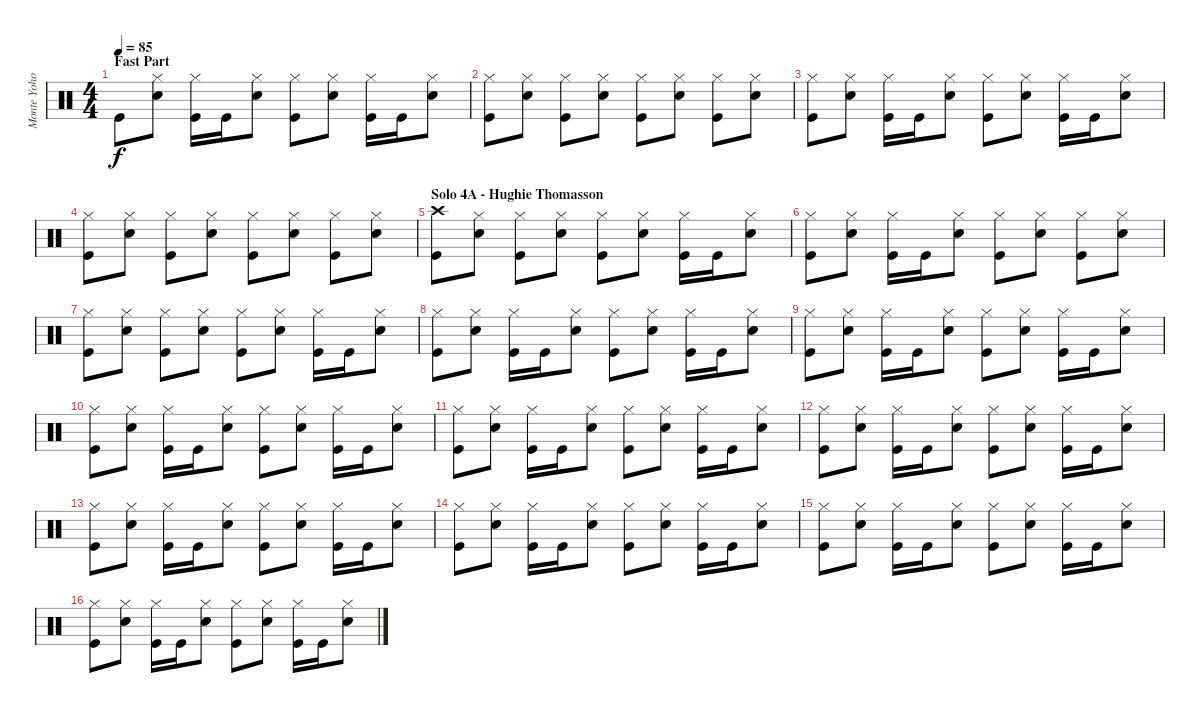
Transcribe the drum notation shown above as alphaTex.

\track ("Monte Yoho - Drums" "Monte Yoho") {instrument percussion}
\staff {score}
\articulation defaults
\ts (4 4)
\section ("" "Fast Part")
\tempo 85
\clef neutral
\ks c "Kick (hit)".8{dy f}
("Hi-Hat (closed)" "Snare (hit) 2").8 ("Hi-Hat (closed)" "Kick (hit)").16 "Kick (hit)".16 ("Hi-Hat (closed)" "Snare (hit) 2").8 ("Hi-Hat (closed)" "Kick (hit)").8 ("Hi-Hat (closed)" "Snare (hit) 2").8 ("Hi-Hat (closed)" "Kick (hit)").16 "Kick (hit)".16 ("Hi-Hat (closed)" "Snare (hit) 2").8 |
("Hi-Hat (closed)" "Kick (hit)").8 ("Hi-Hat (closed)" "Snare (hit) 2").8 ("Hi-Hat (closed)" "Kick (hit)").8 ("Hi-Hat (closed)" "Snare (hit) 2").8 ("Hi-Hat (closed)" "Kick (hit)").8 ("Hi-Hat (closed)" "Snare (hit) 2").8 ("Hi-Hat (closed)" "Kick (hit)").8 ("Hi-Hat (closed)" "Snare (hit) 2").8 |
("Hi-Hat (closed)" "Kick (hit)").8 ("Hi-Hat (closed)" "Snare (hit) 2").8 ("Hi-Hat (closed)" "Kick (hit)").16 "Kick (hit)".16 ("Hi-Hat (closed)" "Snare (hit) 2").8 ("Hi-Hat (closed)" "Kick (hit)").8 ("Hi-Hat (closed)" "Snare (hit) 2").8 ("Hi-Hat (closed)" "Kick (hit)").16 "Kick (hit)".16 ("Hi-Hat (closed)" "Snare (hit) 2").8 |
("Hi-Hat (closed)" "Kick (hit)").8 ("Hi-Hat (closed)" "Snare (hit) 2").8 ("Hi-Hat (closed)" "Kick (hit)").8 ("Hi-Hat (closed)" "Snare (hit) 2").8 ("Hi-Hat (closed)" "Kick (hit)").8 ("Hi-Hat (closed)" "Snare (hit) 2").8 ("Hi-Hat (closed)" "Kick (hit)").8 ("Hi-Hat (closed)" "Snare (hit) 2").8 |
\section ("" "Solo 4A - Hughie Thomasson")
("Crash high (hit)" "Kick (hit)").8 ("Hi-Hat (closed)" "Snare (hit) 2").8 ("Hi-Hat (closed)" "Kick (hit)").8 ("Hi-Hat (closed)" "Snare (hit) 2").8 ("Hi-Hat (closed)" "Kick (hit)").8 ("Hi-Hat (closed)" "Snare (hit) 2").8 ("Hi-Hat (closed)" "Kick (hit)").16 "Kick (hit)".16 ("Hi-Hat (closed)" "Snare (hit) 2").8 |
("Hi-Hat (closed)" "Kick (hit)").8 ("Hi-Hat (closed)" "Snare (hit) 2").8 ("Hi-Hat (closed)" "Kick (hit)").16 "Kick (hit)".16 ("Hi-Hat (closed)" "Snare (hit) 2").8 ("Hi-Hat (closed)" "Kick (hit)").8 ("Hi-Hat (closed)" "Snare (hit) 2").8 ("Hi-Hat (closed)" "Kick (hit)").8 ("Hi-Hat (closed)" "Snare (hit) 2").8 |
("Hi-Hat (closed)" "Kick (hit)").8 ("Hi-Hat (closed)" "Snare (hit) 2").8 ("Hi-Hat (closed)" "Kick (hit)").8 ("Hi-Hat (closed)" "Snare (hit) 2").8 ("Hi-Hat (closed)" "Kick (hit)").8 ("Hi-Hat (closed)" "Snare (hit) 2").8 ("Hi-Hat (closed)" "Kick (hit)").16 "Kick (hit)".16 ("Hi-Hat (closed)" "Snare (hit) 2").8 |
("Hi-Hat (closed)" "Kick (hit)").8 ("Hi-Hat (closed)" "Snare (hit) 2").8 ("Hi-Hat (closed)" "Kick (hit)").16 "Kick (hit)".16 ("Hi-Hat (closed)" "Snare (hit) 2").8 ("Hi-Hat (closed)" "Kick (hit)").8 ("Hi-Hat (closed)" "Snare (hit) 2").8 ("Hi-Hat (closed)" "Kick (hit)").16 "Kick (hit)".16 ("Hi-Hat (closed)" "Snare (hit) 2").8 |
("Hi-Hat (closed)" "Kick (hit)").8 ("Hi-Hat (closed)" "Snare (hit) 2").8 ("Hi-Hat (closed)" "Kick (hit)").16 "Kick (hit)".16 ("Hi-Hat (closed)" "Snare (hit) 2").8 ("Hi-Hat (closed)" "Kick (hit)").8 ("Hi-Hat (closed)" "Snare (hit) 2").8 ("Hi-Hat (closed)" "Kick (hit)").16 "Kick (hit)".16 ("Hi-Hat (closed)" "Snare (hit) 2").8 |
("Hi-Hat (closed)" "Kick (hit)").8 ("Hi-Hat (closed)" "Snare (hit) 2").8 ("Hi-Hat (closed)" "Kick (hit)").16 "Kick (hit)".16 ("Hi-Hat (closed)" "Snare (hit) 2").8 ("Hi-Hat (closed)" "Kick (hit)").8 ("Hi-Hat (closed)" "Snare (hit) 2").8 ("Hi-Hat (closed)" "Kick (hit)").16 "Kick (hit)".16 ("Hi-Hat (closed)" "Snare (hit) 2").8 |
("Hi-Hat (closed)" "Kick (hit)").8 ("Hi-Hat (closed)" "Snare (hit) 2").8 ("Hi-Hat (closed)" "Kick (hit)").16 "Kick (hit)".16 ("Hi-Hat (closed)" "Snare (hit) 2").8 ("Hi-Hat (closed)" "Kick (hit)").8 ("Hi-Hat (closed)" "Snare (hit) 2").8 ("Hi-Hat (closed)" "Kick (hit)").16 "Kick (hit)".16 ("Hi-Hat (closed)" "Snare (hit) 2").8 |
("Hi-Hat (closed)" "Kick (hit)").8 ("Hi-Hat (closed)" "Snare (hit) 2").8 ("Hi-Hat (closed)" "Kick (hit)").16 "Kick (hit)".16 ("Hi-Hat (closed)" "Snare (hit) 2").8 ("Hi-Hat (closed)" "Kick (hit)").8 ("Hi-Hat (closed)" "Snare (hit) 2").8 ("Hi-Hat (closed)" "Kick (hit)").16 "Kick (hit)".16 ("Hi-Hat (closed)" "Snare (hit) 2").8 |
("Hi-Hat (closed)" "Kick (hit)").8 ("Hi-Hat (closed)" "Snare (hit) 2").8 ("Hi-Hat (closed)" "Kick (hit)").16 "Kick (hit)".16 ("Hi-Hat (closed)" "Snare (hit) 2").8 ("Hi-Hat (closed)" "Kick (hit)").8 ("Hi-Hat (closed)" "Snare (hit) 2").8 ("Hi-Hat (closed)" "Kick (hit)").16 "Kick (hit)".16 ("Hi-Hat (closed)" "Snare (hit) 2").8 |
("Hi-Hat (closed)" "Kick (hit)").8 ("Hi-Hat (closed)" "Snare (hit) 2").8 ("Hi-Hat (closed)" "Kick (hit)").16 "Kick (hit)".16 ("Hi-Hat (closed)" "Snare (hit) 2").8 ("Hi-Hat (closed)" "Kick (hit)").8 ("Hi-Hat (closed)" "Snare (hit) 2").8 ("Hi-Hat (closed)" "Kick (hit)").16 "Kick (hit)".16 ("Hi-Hat (closed)" "Snare (hit) 2").8 |
("Hi-Hat (closed)" "Kick (hit)").8 ("Hi-Hat (closed)" "Snare (hit) 2").8 ("Hi-Hat (closed)" "Kick (hit)").16 "Kick (hit)".16 ("Hi-Hat (closed)" "Snare (hit) 2").8 ("Hi-Hat (closed)" "Kick (hit)").8 ("Hi-Hat (closed)" "Snare (hit) 2").8 ("Hi-Hat (closed)" "Kick (hit)").16 "Kick (hit)".16 ("Hi-Hat (closed)" "Snare (hit) 2").8 |
("Hi-Hat (closed)" "Kick (hit)").8 ("Hi-Hat (closed)" "Snare (hit) 2").8 ("Hi-Hat (closed)" "Kick (hit)").16 "Kick (hit)".16 ("Hi-Hat (closed)" "Snare (hit) 2").8 ("Hi-Hat (closed)" "Kick (hit)").8 ("Hi-Hat (closed)" "Snare (hit) 2").8 ("Hi-Hat (closed)" "Kick (hit)").16 "Kick (hit)".16 ("Hi-Hat (closed)" "Snare (hit) 2").8
